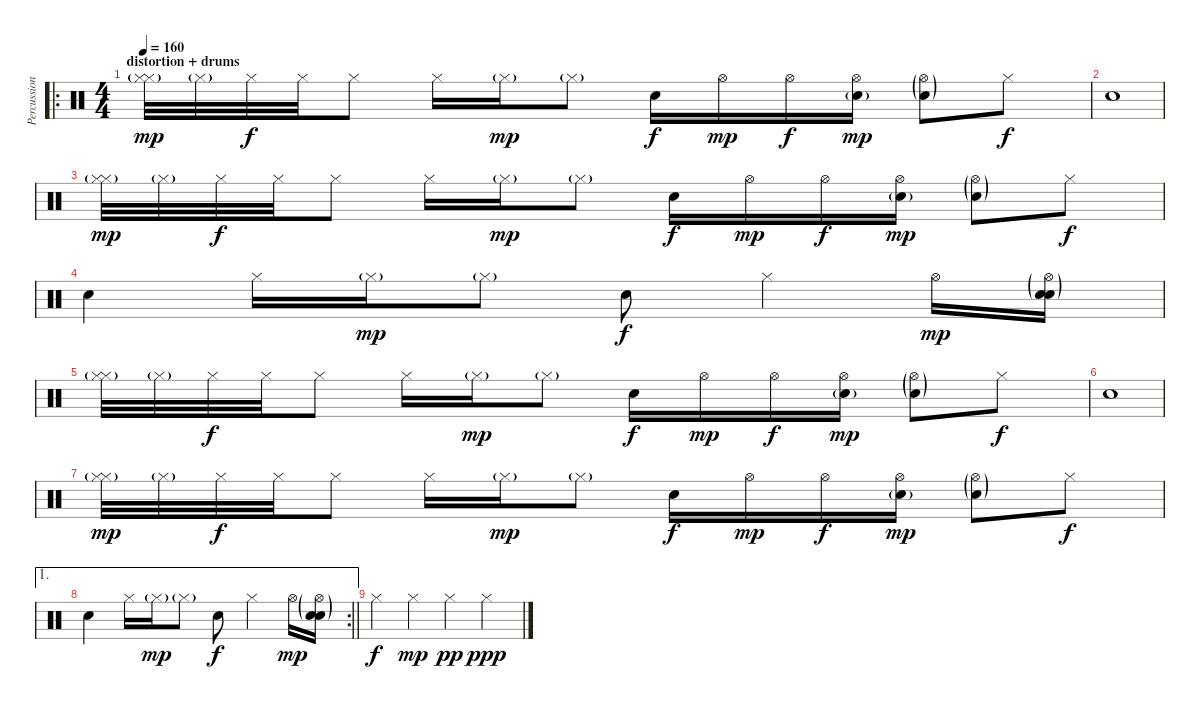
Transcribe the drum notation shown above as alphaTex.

\track ("Percussioni" "Percussion") {instrument percussion}
\staff {score}
\articulation defaults
\ro
\ts (4 4)
\section ("" "distortion + drums")
\tempo 160
\clef neutral
\ks c
("Hi-Hat (closed)"{g} "Hi-Hat (closed)").32{dy mp} "Hi-Hat (closed)"{g}.32 "Hi-Hat (closed)".32{dy f} "Hi-Hat (closed)".32 "Hi-Hat (closed)".8 "Hi-Hat (closed)".16 "Hi-Hat (closed)"{g}.16{dy mp} "Hi-Hat (closed)"{g}.8 "Snare (hit) 2".16{dy f} "Hi-Hat (open)".16{dy mp} "Hi-Hat (open)".16{dy f} ("Hi-Hat (open)" "Snare (hit) 2"{g}).16{dy mp} ("Hi-Hat (open)"{g} "Snare (hit) 2"{g}).8 "Hi-Hat (closed)".8{dy f} |
"Snare (hit) 2".1 |
("Hi-Hat (closed)"{g} "Hi-Hat (closed)").32{dy mp} "Hi-Hat (closed)"{g}.32 "Hi-Hat (closed)".32{dy f} "Hi-Hat (closed)".32 "Hi-Hat (closed)".8 "Hi-Hat (closed)".16 "Hi-Hat (closed)"{g}.16{dy mp} "Hi-Hat (closed)"{g}.8 "Snare (hit) 2".16{dy f} "Hi-Hat (open)".16{dy mp} "Hi-Hat (open)".16{dy f} ("Hi-Hat (open)" "Snare (hit) 2"{g}).16{dy mp} ("Hi-Hat (open)"{g} "Snare (hit) 2"{g}).8 "Hi-Hat (closed)".8{dy f} |
"Snare (hit) 2".4 "Hi-Hat (closed)".16 "Hi-Hat (closed)"{g}.16{dy mp} "Hi-Hat (closed)"{g}.8 "Snare (hit) 2".8{dy f} "Hi-Hat (closed)".4 "Hi-Hat (open)".16{dy mp} ("Hi-Hat (open)"{g} "Snare (hit) 2"{g} "Snare (hit) 2").16 |
("Hi-Hat (closed)"{g} "Hi-Hat (closed)").32 "Hi-Hat (closed)"{g}.32 "Hi-Hat (closed)".32{dy f} "Hi-Hat (closed)".32 "Hi-Hat (closed)".8 "Hi-Hat (closed)".16 "Hi-Hat (closed)"{g}.16{dy mp} "Hi-Hat (closed)"{g}.8 "Snare (hit) 2".16{dy f} "Hi-Hat (open)".16{dy mp} "Hi-Hat (open)".16{dy f} ("Hi-Hat (open)" "Snare (hit) 2"{g}).16{dy mp} ("Hi-Hat (open)"{g} "Snare (hit) 2"{g}).8 "Hi-Hat (closed)".8{dy f} |
"Snare (hit) 2".1 |
("Hi-Hat (closed)"{g} "Hi-Hat (closed)").32{dy mp} "Hi-Hat (closed)"{g}.32 "Hi-Hat (closed)".32{dy f} "Hi-Hat (closed)".32 "Hi-Hat (closed)".8 "Hi-Hat (closed)".16 "Hi-Hat (closed)"{g}.16{dy mp} "Hi-Hat (closed)"{g}.8 "Snare (hit) 2".16{dy f} "Hi-Hat (open)".16{dy mp} "Hi-Hat (open)".16{dy f} ("Hi-Hat (open)" "Snare (hit) 2"{g}).16{dy mp} ("Hi-Hat (open)"{g} "Snare (hit) 2"{g}).8 "Hi-Hat (closed)".8{dy f} |
\ae 1
\rc 2
\barLineRight lightlight "Snare (hit) 2".4 "Hi-Hat (closed)".16 "Hi-Hat (closed)"{g}.16{dy mp} "Hi-Hat (closed)"{g}.8 "Snare (hit) 2".8{dy f} "Hi-Hat (closed)".4 "Hi-Hat (open)".16{dy mp}
("Hi-Hat (open)"{g} "Snare (hit) 2"{g} "Snare (hit) 2").16 |
"Hi-Hat (closed)".4{dy f} "Hi-Hat (closed)".4{dy mp} "Hi-Hat (closed)".4{dy pp} "Hi-Hat (closed)".4{dy ppp}
